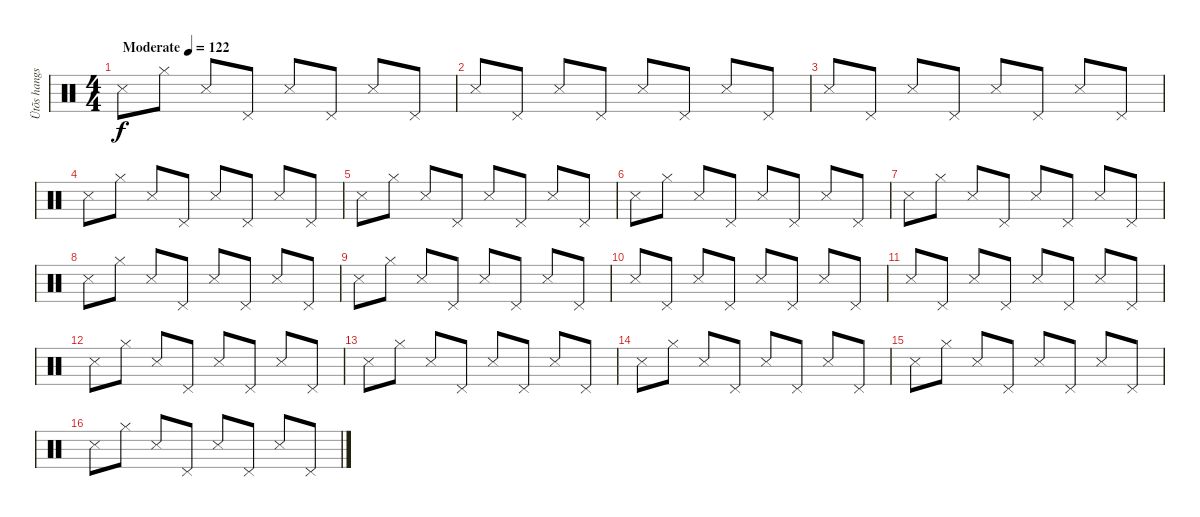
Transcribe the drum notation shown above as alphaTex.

\track ("Ütõs hangszer" "Ütõs hangs") {instrument percussion}
\staff {score}
\articulation defaults
\ts (4 4)
\tempo (122 "Moderate")
\clef neutral
\ks c "Metronome (hit)".8{dy f} "Hi-Hat (closed)".8 "Metronome (hit)".8 "Pedal Hi-Hat (hit)".8 "Metronome (hit)".8 "Pedal Hi-Hat (hit)".8 "Metronome (hit)".8 "Pedal Hi-Hat (hit)".8
|
"Metronome (hit)".8 "Pedal Hi-Hat (hit)".8 "Metronome (hit)".8 "Pedal Hi-Hat (hit)".8 "Metronome (hit)".8 "Pedal Hi-Hat (hit)".8 "Metronome (hit)".8 "Pedal Hi-Hat (hit)".8 |
"Metronome (hit)".8 "Pedal Hi-Hat (hit)".8 "Metronome (hit)".8 "Pedal Hi-Hat (hit)".8 "Metronome (hit)".8 "Pedal Hi-Hat (hit)".8 "Metronome (hit)".8 "Pedal Hi-Hat (hit)".8 |
"Metronome (hit)".8 "Hi-Hat (closed)".8 "Metronome (hit)".8 "Pedal Hi-Hat (hit)".8 "Metronome (hit)".8 "Pedal Hi-Hat (hit)".8 "Metronome (hit)".8 "Pedal Hi-Hat (hit)".8 |
"Metronome (hit)".8 "Hi-Hat (closed)".8 "Metronome (hit)".8 "Pedal Hi-Hat (hit)".8 "Metronome (hit)".8 "Pedal Hi-Hat (hit)".8 "Metronome (hit)".8 "Pedal Hi-Hat (hit)".8 |
"Metronome (hit)".8 "Hi-Hat (closed)".8 "Metronome (hit)".8 "Pedal Hi-Hat (hit)".8 "Metronome (hit)".8 "Pedal Hi-Hat (hit)".8 "Metronome (hit)".8 "Pedal Hi-Hat (hit)".8 |
"Metronome (hit)".8 "Hi-Hat (closed)".8 "Metronome (hit)".8 "Pedal Hi-Hat (hit)".8 "Metronome (hit)".8 "Pedal Hi-Hat (hit)".8 "Metronome (hit)".8 "Pedal Hi-Hat (hit)".8 |
"Metronome (hit)".8 "Hi-Hat (closed)".8 "Metronome (hit)".8 "Pedal Hi-Hat (hit)".8 "Metronome (hit)".8 "Pedal Hi-Hat (hit)".8 "Metronome (hit)".8 "Pedal Hi-Hat (hit)".8 |
"Metronome (hit)".8 "Hi-Hat (closed)".8 "Metronome (hit)".8 "Pedal Hi-Hat (hit)".8 "Metronome (hit)".8 "Pedal Hi-Hat (hit)".8 "Metronome (hit)".8 "Pedal Hi-Hat (hit)".8 |
"Metronome (hit)".8 "Pedal Hi-Hat (hit)".8 "Metronome (hit)".8 "Pedal Hi-Hat (hit)".8 "Metronome (hit)".8 "Pedal Hi-Hat (hit)".8 "Metronome (hit)".8 "Pedal Hi-Hat (hit)".8 |
"Metronome (hit)".8 "Pedal Hi-Hat (hit)".8 "Metronome (hit)".8 "Pedal Hi-Hat (hit)".8 "Metronome (hit)".8 "Pedal Hi-Hat (hit)".8 "Metronome (hit)".8 "Pedal Hi-Hat (hit)".8 |
"Metronome (hit)".8 "Hi-Hat (closed)".8 "Metronome (hit)".8 "Pedal Hi-Hat (hit)".8 "Metronome (hit)".8 "Pedal Hi-Hat (hit)".8 "Metronome (hit)".8 "Pedal Hi-Hat (hit)".8 |
"Metronome (hit)".8 "Hi-Hat (closed)".8 "Metronome (hit)".8 "Pedal Hi-Hat (hit)".8 "Metronome (hit)".8 "Pedal Hi-Hat (hit)".8 "Metronome (hit)".8 "Pedal Hi-Hat (hit)".8 |
"Metronome (hit)".8 "Hi-Hat (closed)".8 "Metronome (hit)".8 "Pedal Hi-Hat (hit)".8 "Metronome (hit)".8 "Pedal Hi-Hat (hit)".8 "Metronome (hit)".8 "Pedal Hi-Hat (hit)".8 |
"Metronome (hit)".8 "Hi-Hat (closed)".8 "Metronome (hit)".8 "Pedal Hi-Hat (hit)".8 "Metronome (hit)".8 "Pedal Hi-Hat (hit)".8 "Metronome (hit)".8 "Pedal Hi-Hat (hit)".8 |
"Metronome (hit)".8 "Hi-Hat (closed)".8 "Metronome (hit)".8 "Pedal Hi-Hat (hit)".8 "Metronome (hit)".8 "Pedal Hi-Hat (hit)".8 "Metronome (hit)".8 "Pedal Hi-Hat (hit)".8
